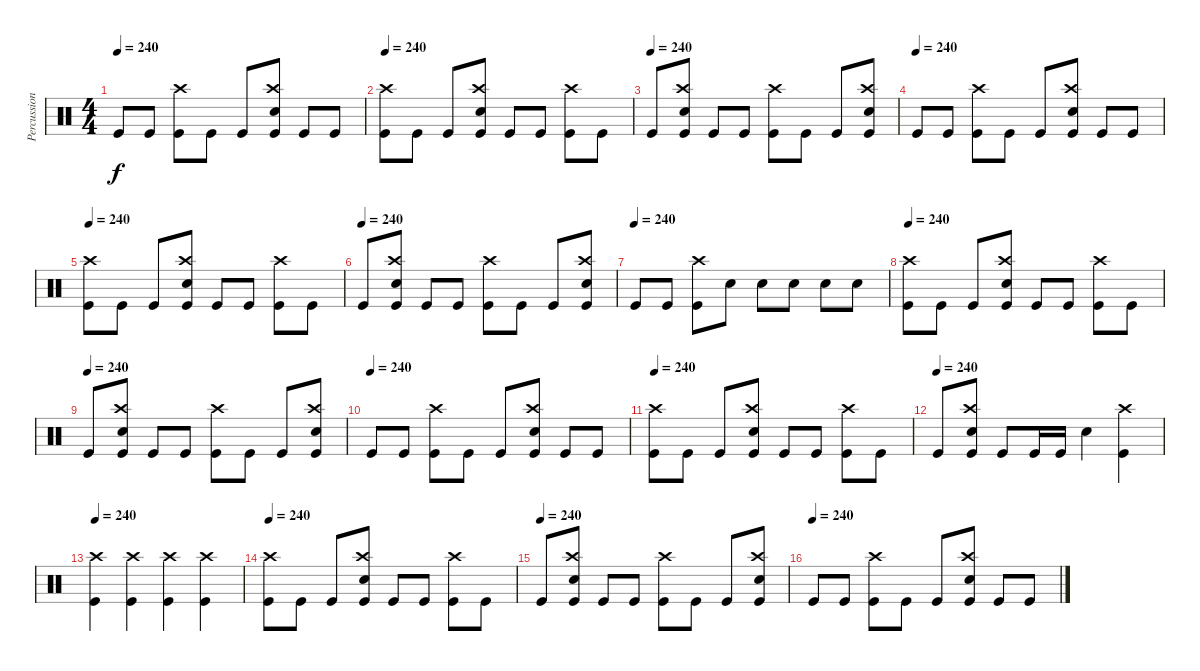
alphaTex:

\track ("Percussion" "Percussion") {instrument percussion}
\staff {score}
\articulation defaults
\ts (4 4)
\tempo 240
\clef neutral
\ks c "Kick (hit)".8{dy f} "Kick (hit)".8
("Crash high (hit)" "Kick (hit)").8 "Kick (hit)".8 "Kick (hit)".8 ("Electric Snare (hit)" "Crash high (hit)" "Kick (hit)").8 "Kick (hit)".8 "Kick (hit)".8 |
\tempo 240
("Crash high (hit)" "Kick (hit)").8 "Kick (hit)".8 "Kick (hit)".8 ("Electric Snare (hit)" "Crash high (hit)" "Kick (hit)").8 "Kick (hit)".8 "Kick (hit)".8 ("Crash high (hit)" "Kick (hit)").8 "Kick (hit)".8 |
\tempo (240)
"Kick (hit)".8 ("Electric Snare (hit)" "Crash high (hit)" "Kick (hit)").8 "Kick (hit)".8 "Kick (hit)".8 ("Crash high (hit)" "Kick (hit)").8 "Kick (hit)".8 "Kick (hit)".8 ("Electric Snare (hit)" "Crash high (hit)" "Kick (hit)").8 |
\tempo (240)
"Kick (hit)".8 "Kick (hit)".8 ("Crash high (hit)" "Kick (hit)").8 "Kick (hit)".8 "Kick (hit)".8 ("Electric Snare (hit)" "Crash high (hit)" "Kick (hit)").8 "Kick (hit)".8 "Kick (hit)".8 |
\tempo 240
("Crash high (hit)" "Kick (hit)").8 "Kick (hit)".8 "Kick (hit)".8 ("Electric Snare (hit)" "Crash high (hit)" "Kick (hit)").8 "Kick (hit)".8 "Kick (hit)".8 ("Crash high (hit)" "Kick (hit)").8 "Kick (hit)".8 |
\tempo (240)
"Kick (hit)".8 ("Electric Snare (hit)" "Crash high (hit)" "Kick (hit)").8 "Kick (hit)".8 "Kick (hit)".8 ("Crash high (hit)" "Kick (hit)").8 "Kick (hit)".8 "Kick (hit)".8 ("Electric Snare (hit)" "Crash high (hit)" "Kick (hit)").8 |
\tempo (240)
"Kick (hit)".8 "Kick (hit)".8 ("Crash high (hit)" "Kick (hit)").8 "Electric Snare (hit)".8 "Electric Snare (hit)".8 "Electric Snare (hit)".8 "Electric Snare (hit)".8 "Electric Snare (hit)".8 |
\tempo 240
("Crash high (hit)" "Kick (hit)").8 "Kick (hit)".8 "Kick (hit)".8 ("Crash high (hit)" "Electric Snare (hit)" "Kick (hit)").8 "Kick (hit)".8 "Kick (hit)".8 ("Crash high (hit)" "Kick (hit)").8 "Kick (hit)".8 |
\tempo (240)
"Kick (hit)".8 ("Crash high (hit)" "Electric Snare (hit)" "Kick (hit)").8 "Kick (hit)".8 "Kick (hit)".8 ("Crash high (hit)" "Kick (hit)").8 "Kick (hit)".8 "Kick (hit)".8 ("Crash high (hit)" "Electric Snare (hit)" "Kick (hit)").8 |
\tempo (240)
"Kick (hit)".8 "Kick (hit)".8 ("Crash high (hit)" "Kick (hit)").8 "Kick (hit)".8 "Kick (hit)".8 ("Crash high (hit)" "Electric Snare (hit)" "Kick (hit)").8 "Kick (hit)".8 "Kick (hit)".8 |
\tempo 240
("Crash high (hit)" "Kick (hit)").8 "Kick (hit)".8 "Kick (hit)".8 ("Crash high (hit)" "Electric Snare (hit)" "Kick (hit)").8 "Kick (hit)".8 "Kick (hit)".8 ("Crash high (hit)" "Kick (hit)").8 "Kick (hit)".8 |
\tempo (240)
"Kick (hit)".8 ("Crash high (hit)" "Electric Snare (hit)" "Kick (hit)").8 "Kick (hit)".8 "Kick (hit)".16 "Kick (hit)".16 "Electric Snare (hit)".4 ("Crash high (hit)" "Kick (hit)").4 |
\tempo 240
("Crash high (hit)" "Kick (hit)").4 ("Crash high (hit)" "Kick (hit)").4 ("Crash high (hit)" "Kick (hit)").4 ("Crash high (hit)" "Kick (hit)").4 |
\tempo 240
("Crash high (hit)" "Kick (hit)").8 "Kick (hit)".8 "Kick (hit)".8 ("Crash high (hit)" "Electric Snare (hit)" "Kick (hit)").8 "Kick (hit)".8 "Kick (hit)".8 ("Crash high (hit)" "Kick (hit)").8 "Kick (hit)".8 |
\tempo (240)
"Kick (hit)".8 ("Crash high (hit)" "Electric Snare (hit)" "Kick (hit)").8 "Kick (hit)".8 "Kick (hit)".8 ("Crash high (hit)" "Kick (hit)").8 "Kick (hit)".8 "Kick (hit)".8 ("Crash high (hit)" "Electric Snare (hit)" "Kick (hit)").8 |
\tempo (240)
"Kick (hit)".8 "Kick (hit)".8 ("Crash high (hit)" "Kick (hit)").8 "Kick (hit)".8 "Kick (hit)".8 ("Crash high (hit)" "Electric Snare (hit)" "Kick (hit)").8 "Kick (hit)".8 "Kick (hit)".8
